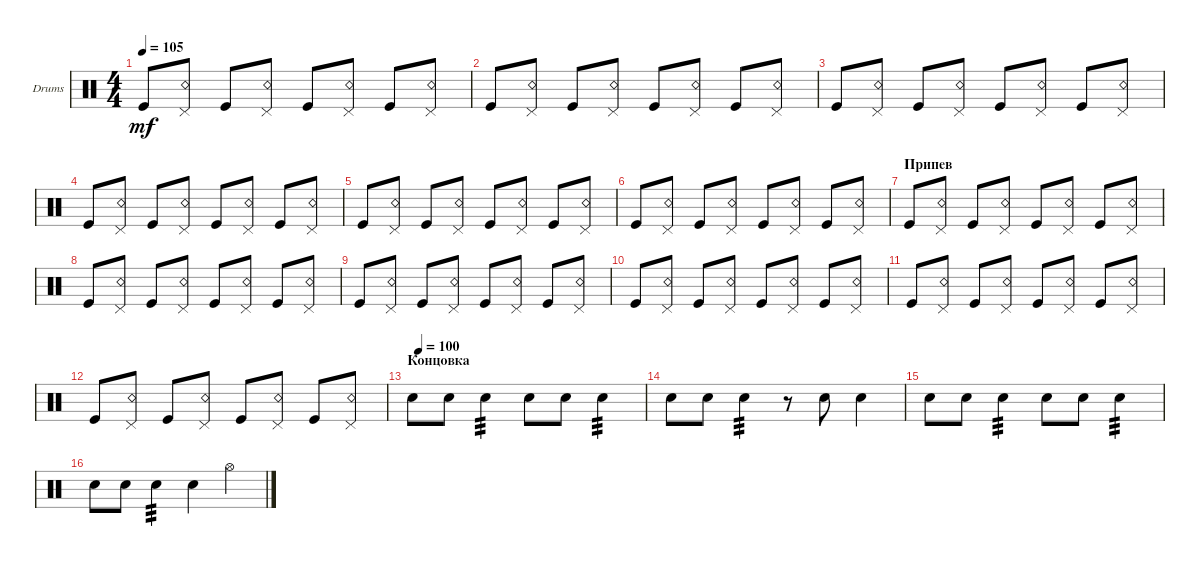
\defaultSystemsLayout 4
\bracketExtendMode groupsimilarinstruments
\firstSystemTrackNameOrientation horizontal
\otherSystemsTrackNameOrientation horizontal
\track ("Drumkit" "Drums") {instrument percussion}
\staff {score}
\articulation defaults
\ts (4 4)
\tempo 105
\clef neutral
\ks c "Kick (hit)".8{dy mf}
("Pedal Hi-Hat (hit)" "Snare (rim shot)").8 "Kick (hit)".8 ("Pedal Hi-Hat (hit)" "Snare (rim shot)").8 "Kick (hit)".8 ("Pedal Hi-Hat (hit)" "Snare (rim shot)").8 "Kick (hit)".8 ("Pedal Hi-Hat (hit)" "Snare (rim shot)").8 |
"Kick (hit)".8 ("Pedal Hi-Hat (hit)" "Snare (rim shot)").8 "Kick (hit)".8 ("Pedal Hi-Hat (hit)" "Snare (rim shot)").8 "Kick (hit)".8 ("Pedal Hi-Hat (hit)" "Snare (rim shot)").8 "Kick (hit)".8 ("Pedal Hi-Hat (hit)" "Snare (rim shot)").8 |
"Kick (hit)".8 ("Pedal Hi-Hat (hit)" "Snare (rim shot)").8 "Kick (hit)".8 ("Pedal Hi-Hat (hit)" "Snare (rim shot)").8 "Kick (hit)".8 ("Pedal Hi-Hat (hit)" "Snare (rim shot)").8 "Kick (hit)".8 ("Pedal Hi-Hat (hit)" "Snare (rim shot)").8 |
"Kick (hit)".8 ("Pedal Hi-Hat (hit)" "Snare (rim shot)").8 "Kick (hit)".8 ("Pedal Hi-Hat (hit)" "Snare (rim shot)").8 "Kick (hit)".8 ("Pedal Hi-Hat (hit)" "Snare (rim shot)").8 "Kick (hit)".8 ("Pedal Hi-Hat (hit)" "Snare (rim shot)").8 |
"Kick (hit)".8 ("Pedal Hi-Hat (hit)" "Snare (rim shot)").8 "Kick (hit)".8 ("Pedal Hi-Hat (hit)" "Snare (rim shot)").8 "Kick (hit)".8 ("Pedal Hi-Hat (hit)" "Snare (rim shot)").8 "Kick (hit)".8 ("Pedal Hi-Hat (hit)" "Snare (rim shot)").8 |
"Kick (hit)".8 ("Pedal Hi-Hat (hit)" "Snare (rim shot)").8 "Kick (hit)".8 ("Pedal Hi-Hat (hit)" "Snare (rim shot)").8 "Kick (hit)".8 ("Pedal Hi-Hat (hit)" "Snare (rim shot)").8 "Kick (hit)".8 ("Pedal Hi-Hat (hit)" "Snare (rim shot)").8 |
\section ("" "Припев")
"Kick (hit)".8 ("Pedal Hi-Hat (hit)" "Snare (rim shot)").8 "Kick (hit)".8 ("Pedal Hi-Hat (hit)" "Snare (rim shot)").8 "Kick (hit)".8 ("Pedal Hi-Hat (hit)" "Snare (rim shot)").8 "Kick (hit)".8 ("Pedal Hi-Hat (hit)" "Snare (rim shot)").8 |
"Kick (hit)".8 ("Pedal Hi-Hat (hit)" "Snare (rim shot)").8 "Kick (hit)".8 ("Pedal Hi-Hat (hit)" "Snare (rim shot)").8 "Kick (hit)".8 ("Pedal Hi-Hat (hit)" "Snare (rim shot)").8 "Kick (hit)".8 ("Pedal Hi-Hat (hit)" "Snare (rim shot)").8 |
"Kick (hit)".8 ("Pedal Hi-Hat (hit)" "Snare (rim shot)").8 "Kick (hit)".8 ("Pedal Hi-Hat (hit)" "Snare (rim shot)").8 "Kick (hit)".8 ("Pedal Hi-Hat (hit)" "Snare (rim shot)").8 "Kick (hit)".8 ("Pedal Hi-Hat (hit)" "Snare (rim shot)").8 |
"Kick (hit)".8 ("Pedal Hi-Hat (hit)" "Snare (rim shot)").8 "Kick (hit)".8 ("Pedal Hi-Hat (hit)" "Snare (rim shot)").8 "Kick (hit)".8 ("Pedal Hi-Hat (hit)" "Snare (rim shot)").8 "Kick (hit)".8 ("Pedal Hi-Hat (hit)" "Snare (rim shot)").8 |
"Kick (hit)".8 ("Pedal Hi-Hat (hit)" "Snare (rim shot)").8 "Kick (hit)".8 ("Pedal Hi-Hat (hit)" "Snare (rim shot)").8 "Kick (hit)".8 ("Pedal Hi-Hat (hit)" "Snare (rim shot)").8 "Kick (hit)".8 ("Pedal Hi-Hat (hit)" "Snare (rim shot)").8 |
"Kick (hit)".8 ("Pedal Hi-Hat (hit)" "Snare (rim shot)").8 "Kick (hit)".8 ("Pedal Hi-Hat (hit)" "Snare (rim shot)").8 "Kick (hit)".8 ("Pedal Hi-Hat (hit)" "Snare (rim shot)").8 "Kick (hit)".8 ("Pedal Hi-Hat (hit)" "Snare (rim shot)").8 |
\section ("" "Концовка")
\tempo (100 0.03125)
"Snare (hit) 2".8 "Snare (hit) 2".8 "Snare (hit) 2".4{tp 3} "Snare (hit) 2".8 "Snare (hit) 2".8 "Snare (hit) 2".4{tp 3} |
"Snare (hit) 2".8 "Snare (hit) 2".8 "Snare (hit) 2".4{tp 3} r.8 "Snare (hit) 2".8 "Snare (hit) 2".4 |
"Snare (hit) 2".8 "Snare (hit) 2".8 "Snare (hit) 2".4{tp 3} "Snare (hit) 2".8 "Snare (hit) 2".8 "Snare (hit) 2".4{tp 3} |
"Snare (hit) 2".8 "Snare (hit) 2".8 "Snare (hit) 2".4{tp 3} "Snare (hit) 2".4 "Hi-Hat (open)".4
